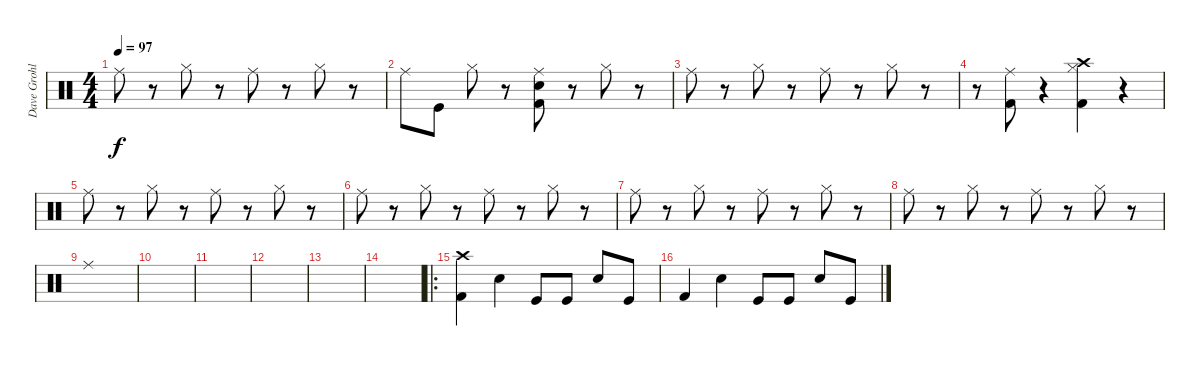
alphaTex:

\track ("Dave Grohl" "Dave Grohl") {instrument percussion}
\staff {score}
\articulation defaults
\ts (4 4)
\tempo 97
\clef neutral
\ks c "Ride (middle)".8{dy f}
r.8 "Hi-Hat (closed)".8 r.8 "Ride (middle)".8 r.8 "Hi-Hat (closed)".8 r.8 |
"Ride (middle)".8 "Kick (hit)".8 "Hi-Hat (closed)".8 r.8 ("Electric Snare (hit)" "Kick (hit) 2" "Ride (middle)").8 r.8 "Hi-Hat (closed)".8 r.8 |
"Ride (middle)".8 r.8 "Hi-Hat (closed)".8 r.8 "Ride (middle)".8 r.8 "Hi-Hat (closed)".8 r.8 |
r.8 ("Ride (middle)" "Kick (hit) 2").8 r.4 ("Crash high (hit)" "Hi-Hat (closed)" "Kick (hit) 2").4 r.4 |
"Ride (middle)".8 r.8 "Hi-Hat (closed)".8 r.8 "Ride (middle)".8 r.8 "Hi-Hat (closed)".8 r.8 |
"Ride (middle)".8 r.8 "Hi-Hat (closed)".8 r.8 "Ride (middle)".8 r.8 "Hi-Hat (closed)".8 r.8 |
"Ride (middle)".8 r.8 "Hi-Hat (closed)".8 r.8 "Ride (middle)".8 r.8 "Hi-Hat (closed)".8 r.8 |
"Ride (middle)".8 r.8 "Hi-Hat (closed)".8 r.8 "Ride (middle)".8 r.8 "Hi-Hat (closed)".8 r.8 |
"Ride (middle)".1 |
|
|
|
|
|
\ro
("Crash high (hit)" "Kick (hit) 2").4 "Electric Snare (hit)".4 "Kick (hit)".8 "Kick (hit)".8 "Electric Snare (hit)".8 "Kick (hit)".8 |
"Kick (hit) 2".4 "Electric Snare (hit)".4 "Kick (hit)".8 "Kick (hit)".8 "Electric Snare (hit)".8 "Kick (hit)".8
